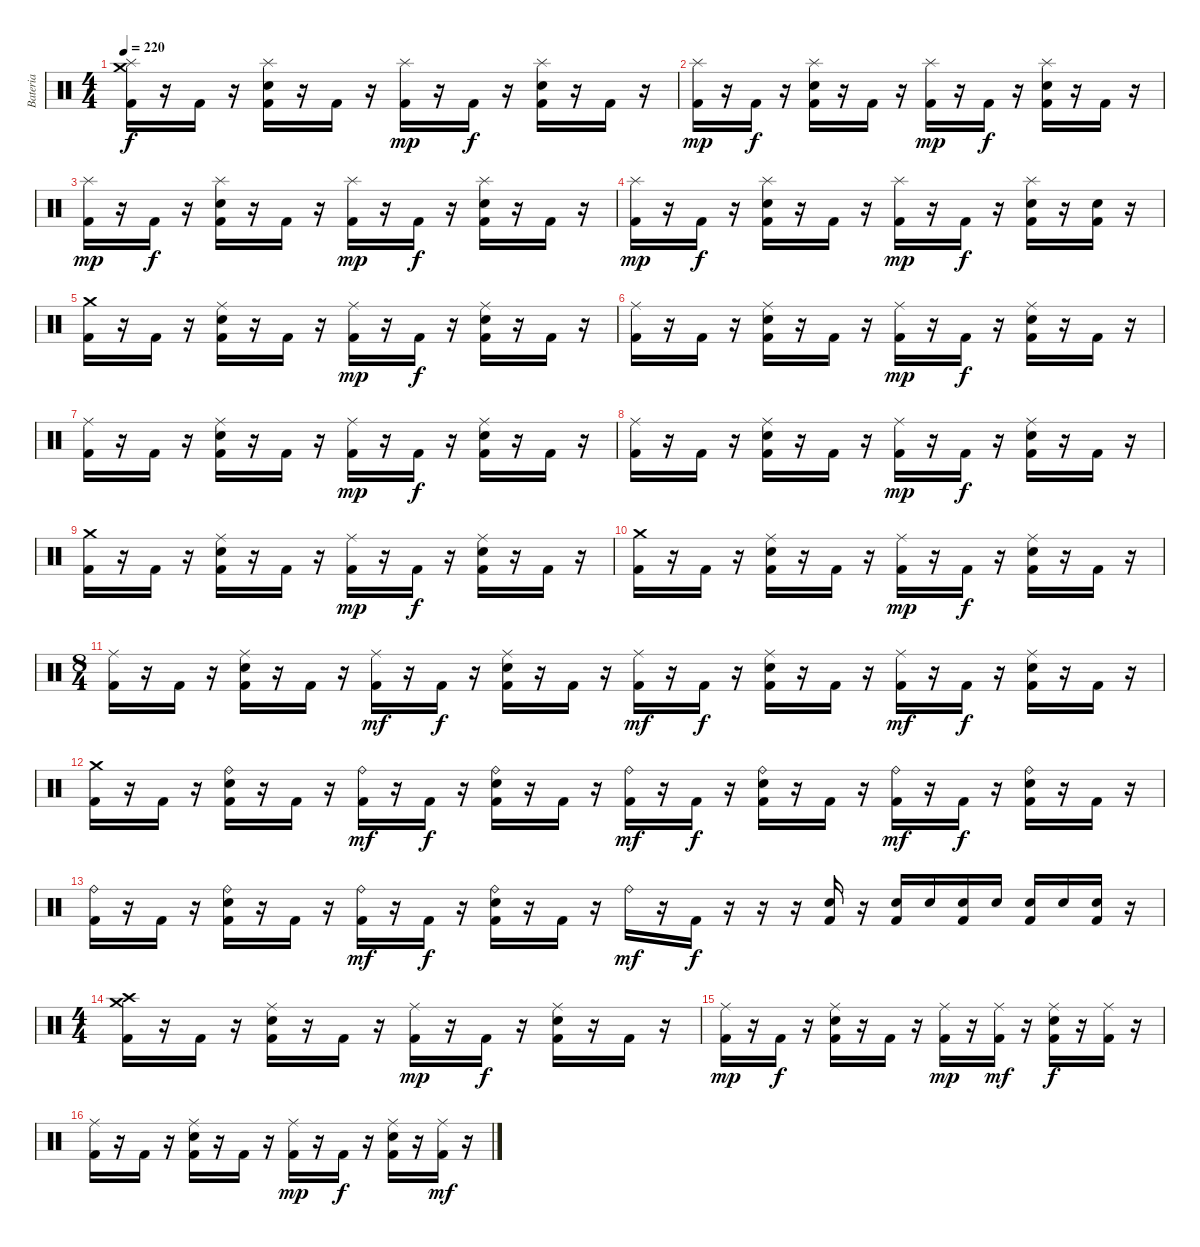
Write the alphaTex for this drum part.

\track ("Bateria" "Bateria") {instrument percussion}
\staff {score}
\articulation defaults
\ts (4 4)
\tempo 220
\clef neutral
\ks c
("Splash (hit)" "Crash medium (hit)" "Kick (hit) 2").16{dy f} r.16 "Kick (hit) 2".16 r.16 ("Splash (hit)" "Electric Snare (hit)" "Kick (hit) 2").16 r.16 "Kick (hit) 2".16 r.16 ("Splash (hit)" "Kick (hit) 2").16{dy mp} r.16 "Kick (hit) 2".16{dy f} r.16 ("Splash (hit)" "Electric Snare (hit)" "Kick (hit) 2").16 r.16 "Kick (hit) 2".16 r.16 |
("Splash (hit)" "Kick (hit) 2").16{dy mp} r.16 "Kick (hit) 2".16{dy f} r.16 ("Splash (hit)" "Electric Snare (hit)" "Kick (hit) 2").16 r.16 "Kick (hit) 2".16 r.16 ("Splash (hit)" "Kick (hit) 2").16{dy mp} r.16 "Kick (hit) 2".16{dy f} r.16 ("Splash (hit)" "Electric Snare (hit)" "Kick (hit) 2").16 r.16 "Kick (hit) 2".16 r.16 |
("Splash (hit)" "Kick (hit) 2").16{dy mp} r.16 "Kick (hit) 2".16{dy f} r.16 ("Splash (hit)" "Electric Snare (hit)" "Kick (hit) 2").16 r.16 "Kick (hit) 2".16 r.16 ("Splash (hit)" "Kick (hit) 2").16{dy mp} r.16 "Kick (hit) 2".16{dy f} r.16 ("Splash (hit)" "Electric Snare (hit)" "Kick (hit) 2").16 r.16 "Kick (hit) 2".16 r.16 |
("Splash (hit)" "Kick (hit) 2").16{dy mp} r.16 "Kick (hit) 2".16{dy f} r.16 ("Splash (hit)" "Electric Snare (hit)" "Kick (hit) 2").16 r.16 "Kick (hit) 2".16 r.16 ("Splash (hit)" "Kick (hit) 2").16{dy mp} r.16 "Kick (hit) 2".16{dy f} r.16 ("Splash (hit)" "Electric Snare (hit)" "Kick (hit) 2").16 r.16 ("Electric Snare (hit)" "Kick (hit) 2").16 r.16 |
("Crash medium (hit)" "Kick (hit) 2").16 r.16 "Kick (hit) 2".16 r.16 ("Ride (middle)" "Electric Snare (hit)" "Kick (hit) 2").16 r.16 "Kick (hit) 2".16 r.16 ("Ride (middle)" "Kick (hit) 2").16{dy mp} r.16 "Kick (hit) 2".16{dy f} r.16 ("Ride (middle)" "Electric Snare (hit)" "Kick (hit) 2").16 r.16 "Kick (hit) 2".16 r.16 |
("Ride (middle)" "Kick (hit) 2").16 r.16 "Kick (hit) 2".16 r.16 ("Ride (middle)" "Electric Snare (hit)" "Kick (hit) 2").16 r.16 "Kick (hit) 2".16 r.16 ("Ride (middle)" "Kick (hit) 2").16{dy mp} r.16 "Kick (hit) 2".16{dy f} r.16 ("Ride (middle)" "Electric Snare (hit)" "Kick (hit) 2").16 r.16 "Kick (hit) 2".16 r.16 |
("Ride (middle)" "Kick (hit) 2").16 r.16 "Kick (hit) 2".16 r.16 ("Ride (middle)" "Electric Snare (hit)" "Kick (hit) 2").16 r.16 "Kick (hit) 2".16 r.16 ("Ride (middle)" "Kick (hit) 2").16{dy mp} r.16 "Kick (hit) 2".16{dy f} r.16 ("Ride (middle)" "Electric Snare (hit)" "Kick (hit) 2").16 r.16 "Kick (hit) 2".16 r.16 |
("Ride (middle)" "Kick (hit) 2").16 r.16 "Kick (hit) 2".16 r.16 ("Ride (middle)" "Electric Snare (hit)" "Kick (hit) 2").16 r.16 "Kick (hit) 2".16 r.16 ("Ride (middle)" "Kick (hit) 2").16{dy mp} r.16 "Kick (hit) 2".16{dy f} r.16 ("Ride (middle)" "Electric Snare (hit)" "Kick (hit) 2").16 r.16 "Kick (hit) 2".16 r.16 |
("Crash medium (hit)" "Kick (hit) 2").16 r.16 "Kick (hit) 2".16 r.16 ("Ride (middle)" "Electric Snare (hit)" "Kick (hit) 2").16 r.16 "Kick (hit) 2".16 r.16 ("Ride (middle)" "Kick (hit) 2").16{dy mp} r.16 "Kick (hit) 2".16{dy f} r.16 ("Ride (middle)" "Electric Snare (hit)" "Kick (hit) 2").16 r.16 "Kick (hit) 2".16 r.16 |
("Crash medium (hit)" "Kick (hit) 2").16 r.16 "Kick (hit) 2".16 r.16 ("Ride (middle)" "Electric Snare (hit)" "Kick (hit) 2").16 r.16 "Kick (hit) 2".16 r.16 ("Ride (middle)" "Kick (hit) 2").16{dy mp} r.16 "Kick (hit) 2".16{dy f} r.16 ("Ride (middle)" "Electric Snare (hit)" "Kick (hit) 2").16 r.16 "Kick (hit) 2".16 r.16 |
\ts (8 4)
("Ride (middle)" "Kick (hit) 2").16 r.16 "Kick (hit) 2".16 r.16 ("Ride (middle)" "Electric Snare (hit)" "Kick (hit) 2").16 r.16 "Kick (hit) 2".16 r.16 ("Ride (middle)" "Kick (hit) 2").16{dy mf} r.16 "Kick (hit) 2".16{dy f} r.16 ("Ride (middle)" "Electric Snare (hit)" "Kick (hit) 2").16 r.16 "Kick (hit) 2".16 r.16 ("Ride (middle)" "Kick (hit) 2").16{dy mf} r.16 "Kick (hit) 2".16{dy f} r.16 ("Ride (middle)" "Electric Snare (hit)" "Kick (hit) 2").16 r.16 "Kick (hit) 2".16 r.16 ("Ride (middle)" "Kick (hit) 2").16{dy mf} r.16 "Kick (hit) 2".16{dy f} r.16 ("Ride (middle)" "Electric Snare (hit)" "Kick (hit) 2").16 r.16 "Kick (hit) 2".16 r.16 |
("Crash medium (hit)" "Kick (hit) 2").16 r.16 "Kick (hit) 2".16 r.16 ("Ride (bell)" "Electric Snare (hit)" "Kick (hit) 2").16 r.16 "Kick (hit) 2".16 r.16 ("Ride (bell)" "Kick (hit) 2").16{dy mf} r.16 "Kick (hit) 2".16{dy f} r.16 ("Ride (bell)" "Electric Snare (hit)" "Kick (hit) 2").16 r.16 "Kick (hit) 2".16 r.16 ("Ride (bell)" "Kick (hit) 2").16{dy mf} r.16 "Kick (hit) 2".16{dy f} r.16 ("Ride (bell)" "Electric Snare (hit)" "Kick (hit) 2").16 r.16 "Kick (hit) 2".16 r.16 ("Ride (bell)" "Kick (hit) 2").16{dy mf} r.16 "Kick (hit) 2".16{dy f} r.16 ("Ride (bell)" "Electric Snare (hit)" "Kick (hit) 2").16 r.16 "Kick (hit) 2".16 r.16 |
("Ride (bell)" "Kick (hit) 2").16 r.16 "Kick (hit) 2".16 r.16 ("Ride (bell)" "Electric Snare (hit)" "Kick (hit) 2").16 r.16 "Kick (hit) 2".16 r.16 ("Ride (bell)" "Kick (hit) 2").16{dy mf} r.16 "Kick (hit) 2".16{dy f} r.16 ("Ride (bell)" "Electric Snare (hit)" "Kick (hit) 2").16 r.16 "Kick (hit) 2".16 r.16 "Ride (bell)".16{dy mf} r.16 "Kick (hit) 2".16{dy f} r.16 r.16 r.16 ("Electric Snare (hit)" "Kick (hit) 2").16 r.16 ("Electric Snare (hit)" "Kick (hit) 2").16 "Electric Snare (hit)".16 ("Electric Snare (hit)" "Kick (hit) 2").16 "Electric Snare (hit)".16 ("Electric Snare (hit)" "Kick (hit) 2").16 "Electric Snare (hit)".16 ("Electric Snare (hit)" "Kick (hit) 2").16 r.16 |
\ts (4 4)
("Crash medium (hit)" "Crash high (hit)" "Kick (hit) 2").16 r.16 "Kick (hit) 2".16 r.16 ("Ride (middle)" "Electric Snare (hit)" "Kick (hit) 2").16 r.16 "Kick (hit) 2".16 r.16 ("Ride (middle)" "Kick (hit) 2").16{dy mp} r.16 "Kick (hit) 2".16{dy f} r.16 ("Ride (middle)" "Electric Snare (hit)" "Kick (hit) 2").16 r.16 "Kick (hit) 2".16 r.16 |
("Ride (middle)" "Kick (hit) 2").16{dy mp} r.16 "Kick (hit) 2".16{dy f} r.16 ("Ride (middle)" "Electric Snare (hit)" "Kick (hit) 2").16 r.16 "Kick (hit) 2".16 r.16 ("Ride (middle)" "Kick (hit) 2").16{dy mp} r.16 ("Ride (middle)" "Kick (hit) 2").16{dy mf} r.16 ("Ride (middle)" "Electric Snare (hit)" "Kick (hit) 2").16{dy f} r.16 ("Ride (middle)" "Kick (hit) 2").16 r.16 |
("Ride (middle)" "Kick (hit) 2").16 r.16 "Kick (hit) 2".16 r.16 ("Ride (middle)" "Electric Snare (hit)" "Kick (hit) 2").16 r.16 "Kick (hit) 2".16 r.16 ("Ride (middle)" "Kick (hit) 2").16{dy mp} r.16 "Kick (hit) 2".16{dy f} r.16 ("Ride (middle)" "Electric Snare (hit)" "Kick (hit) 2").16 r.16 ("Ride (middle)" "Kick (hit) 2").16{dy mf} r.16
